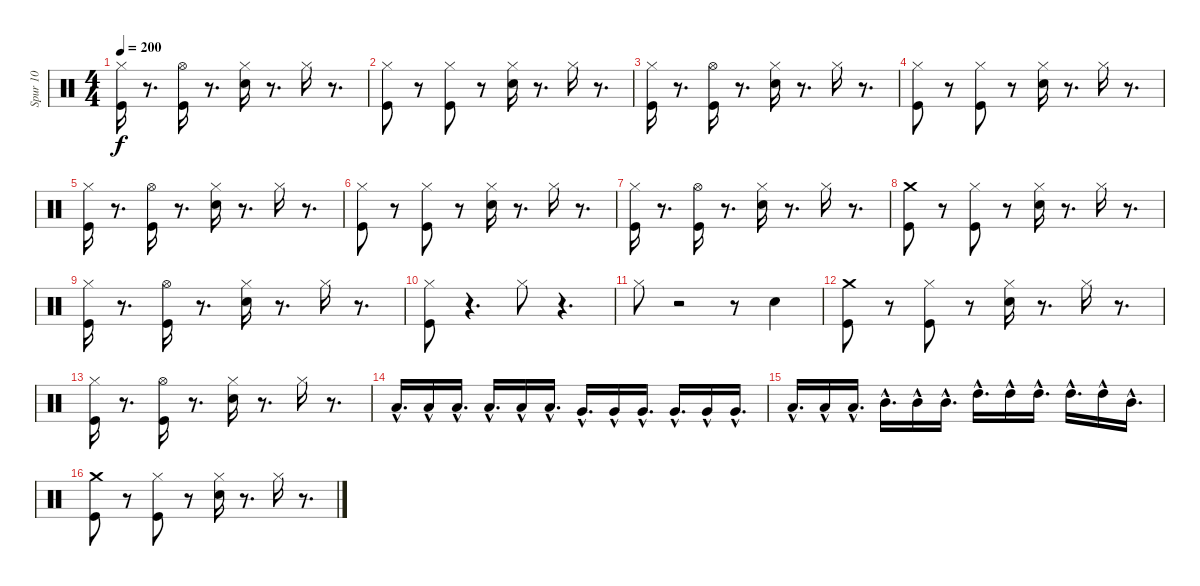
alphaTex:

\track ("Spur 10" "Spur 10") {instrument percussion}
\staff {score}
\articulation defaults
\ts (4 4)
\tempo 200
\clef neutral
\ks c
("Kick (hit)" "Hi-Hat (closed)").16{dy f} r.8{d} ("Kick (hit)" "Hi-Hat (open)").16 r.8{d} ("Snare (hit) 2" "Hi-Hat (closed)").16 r.8{d} "Hi-Hat (closed)".16 r.8{d} |
("Hi-Hat (closed)" "Kick (hit)").8 r.8 ("Kick (hit)" "Hi-Hat (closed)").8 r.8 ("Snare (hit) 2" "Hi-Hat (closed)").16 r.8{d} "Hi-Hat (closed)".16 r.8{d} |
("Kick (hit)" "Hi-Hat (closed)").16 r.8{d} ("Kick (hit)" "Hi-Hat (open)").16 r.8{d} ("Snare (hit) 2" "Hi-Hat (closed)").16 r.8{d} "Hi-Hat (closed)".16 r.8{d} |
("Hi-Hat (closed)" "Kick (hit)").8 r.8 ("Kick (hit)" "Hi-Hat (closed)").8 r.8 ("Snare (hit) 2" "Hi-Hat (closed)").16 r.8{d} "Hi-Hat (closed)".16 r.8{d} |
("Kick (hit)" "Hi-Hat (closed)").16 r.8{d} ("Kick (hit)" "Hi-Hat (open)").16 r.8{d} ("Snare (hit) 2" "Hi-Hat (closed)").16 r.8{d} "Hi-Hat (closed)".16 r.8{d} |
("Hi-Hat (closed)" "Kick (hit)").8 r.8 ("Kick (hit)" "Hi-Hat (closed)").8 r.8 ("Snare (hit) 2" "Hi-Hat (closed)").16 r.8{d} "Hi-Hat (closed)".16 r.8{d} |
("Kick (hit)" "Hi-Hat (closed)").16 r.8{d} ("Kick (hit)" "Hi-Hat (open)").16 r.8{d} ("Snare (hit) 2" "Hi-Hat (closed)").16 r.8{d} "Hi-Hat (closed)".16 r.8{d} |
("Crash medium (hit)" "Kick (hit)").8 r.8 ("Kick (hit)" "Hi-Hat (closed)").8 r.8 ("Snare (hit) 2" "Hi-Hat (closed)").16 r.8{d} "Hi-Hat (closed)".16 r.8{d} |
("Kick (hit)" "Hi-Hat (closed)").16 r.8{d} ("Kick (hit)" "Hi-Hat (open)").16 r.8{d} ("Snare (hit) 2" "Hi-Hat (closed)").16 r.8{d} "Hi-Hat (closed)".16 r.8{d} |
("Hi-Hat (closed)" "Kick (hit)").8 r.4{d} "Hi-Hat (closed)".8 r.4{d} |
"Hi-Hat (closed)".8 r.2 r.8 "Snare (hit) 2".4 |
("Crash medium (hit)" "Kick (hit)").8 r.8 ("Kick (hit)" "Hi-Hat (closed)").8 r.8 ("Snare (hit) 2" "Hi-Hat (closed)").16 r.8{d} "Hi-Hat (closed)".16 r.8{d} |
("Kick (hit)" "Hi-Hat (closed)").16 r.8{d} ("Kick (hit)" "Hi-Hat (open)").16 r.8{d} ("Snare (hit) 2" "Hi-Hat (closed)").16 r.8{d} "Hi-Hat (closed)".16 r.8{d} |
"Low Floor Tom (hit)"{hac}.16{d} "Low Floor Tom (hit)"{hac}.16 "Low Floor Tom (hit)"{hac}.16{d} "Low Floor Tom (hit)"{hac}.16{d} "Low Floor Tom (hit)"{hac}.16 "Low Floor Tom (hit)"{hac}.16{d} "Very Low Tom (hit)"{hac}.16{d} "Very Low Tom (hit)"{hac}.16 "Very Low Tom (hit)"{hac}.16{d} "Very Low Tom (hit)"{hac}.16{d} "Very Low Tom (hit)"{hac}.16 "Very Low Tom (hit)"{hac}.16{d} |
"Low Tom (hit)"{hac}.16{d} "Low Tom (hit)"{hac}.16 "Low Tom (hit)"{hac}.16{d} "Mid Tom (hit)"{hac}.16{d} "Mid Tom (hit)"{hac}.16 "Mid Tom (hit)"{hac}.16{d} "High Tom (hit)"{hac}.16{d} "High Tom (hit)"{hac}.16 "High Tom (hit)"{hac}.16{d} "High Tom (hit)"{hac}.16{d} "High Tom (hit)"{hac}.16 "Mid Tom (hit)"{hac}.16{d} |
("Crash medium (hit)" "Kick (hit)").8 r.8 ("Kick (hit)" "Hi-Hat (closed)").8 r.8 ("Snare (hit) 2" "Hi-Hat (closed)").16 r.8{d} "Hi-Hat (closed)".16 r.8{d}
